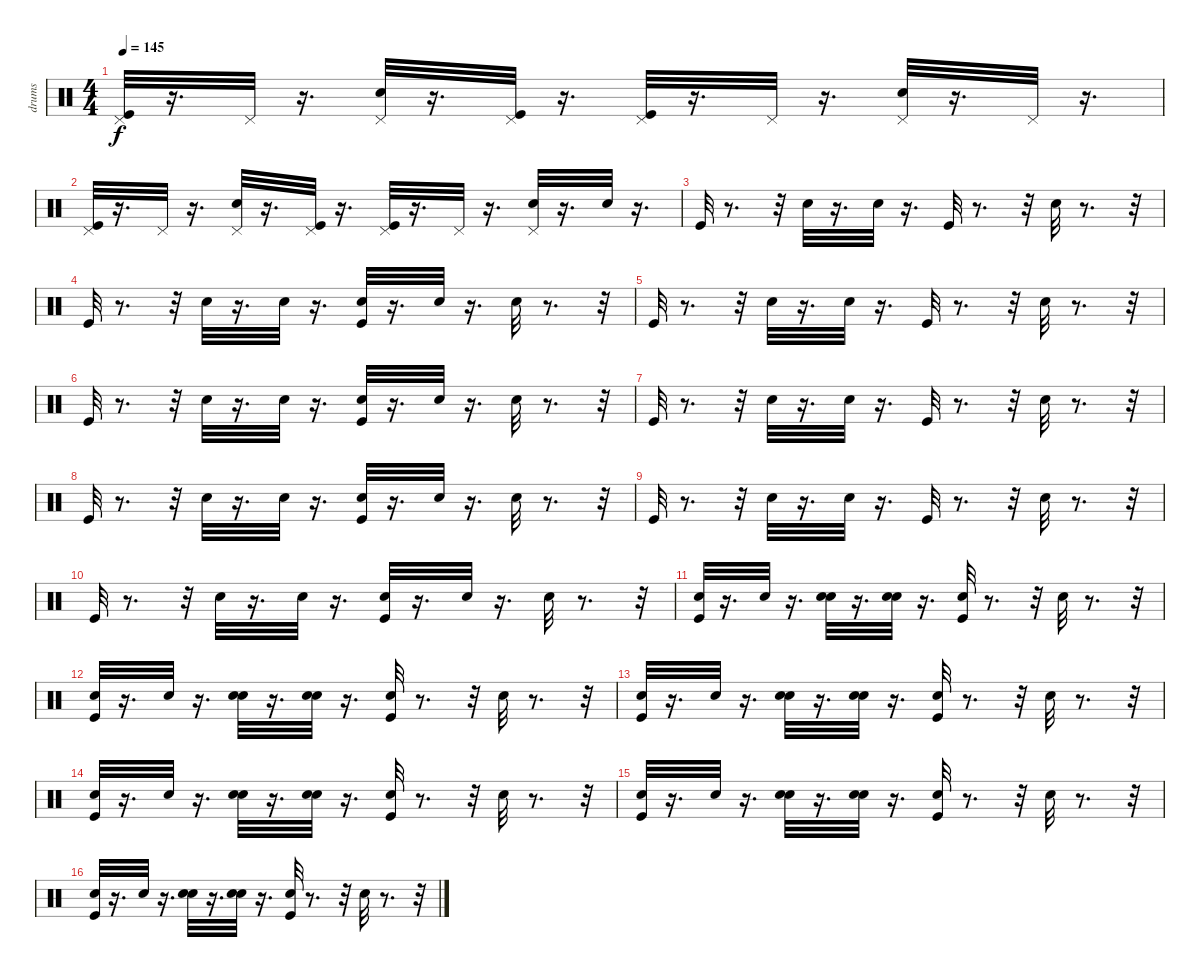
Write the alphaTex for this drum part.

\track ("drums" "drums") {instrument percussion}
\staff {score}
\articulation defaults
\ts (4 4)
\tempo 145
\clef neutral
\ks c
("Pedal Hi-Hat (hit)" "Kick (hit)").32{dy f} r.16{d} "Pedal Hi-Hat (hit)".32 r.16{d} ("Pedal Hi-Hat (hit)" "Electric Snare (hit)").32 r.16{d} ("Pedal Hi-Hat (hit)" "Kick (hit)").32 r.16{d} ("Pedal Hi-Hat (hit)" "Kick (hit)").32 r.16{d} "Pedal Hi-Hat (hit)".32 r.16{d} ("Pedal Hi-Hat (hit)" "Electric Snare (hit)").32 r.16{d} "Pedal Hi-Hat (hit)".32 r.16{d} |
("Pedal Hi-Hat (hit)" "Kick (hit)").32 r.16{d} "Pedal Hi-Hat (hit)".32 r.16{d} ("Pedal Hi-Hat (hit)" "Electric Snare (hit)").32 r.16{d} ("Pedal Hi-Hat (hit)" "Kick (hit)").32 r.16{d} ("Pedal Hi-Hat (hit)" "Kick (hit)").32 r.16{d} "Pedal Hi-Hat (hit)".32 r.16{d} ("Pedal Hi-Hat (hit)" "Electric Snare (hit)").32 r.16{d} "Electric Snare (hit)".32 r.16{d} |
"Kick (hit)".32 r.8{d} r.32 "Electric Snare (hit)".32 r.16{d} "Electric Snare (hit)".32 r.16{d} "Kick (hit)".32 r.8{d} r.32 "Electric Snare (hit)".32 r.8{d} r.32 |
"Kick (hit)".32 r.8{d} r.32 "Electric Snare (hit)".32 r.16{d} "Electric Snare (hit)".32 r.16{d} ("Kick (hit)" "Hand Clap (hit)").32 r.16{d} "Hand Clap (hit)".32 r.16{d} "Electric Snare (hit)".32 r.8{d} r.32 |
"Kick (hit)".32 r.8{d} r.32 "Electric Snare (hit)".32 r.16{d} "Electric Snare (hit)".32 r.16{d} "Kick (hit)".32 r.8{d} r.32 "Electric Snare (hit)".32 r.8{d} r.32 |
"Kick (hit)".32 r.8{d} r.32 "Electric Snare (hit)".32 r.16{d} "Electric Snare (hit)".32 r.16{d} ("Hand Clap (hit)" "Kick (hit)").32 r.16{d} "Hand Clap (hit)".32 r.16{d} "Electric Snare (hit)".32 r.8{d} r.32 |
"Kick (hit)".32 r.8{d} r.32 "Electric Snare (hit)".32 r.16{d} "Electric Snare (hit)".32 r.16{d} "Kick (hit)".32 r.8{d} r.32 "Electric Snare (hit)".32 r.8{d} r.32 |
"Kick (hit)".32 r.8{d} r.32 "Electric Snare (hit)".32 r.16{d} "Electric Snare (hit)".32 r.16{d} ("Kick (hit)" "Hand Clap (hit)").32 r.16{d} "Hand Clap (hit)".32 r.16{d} "Electric Snare (hit)".32 r.8{d} r.32 |
"Kick (hit)".32 r.8{d} r.32 "Electric Snare (hit)".32 r.16{d} "Electric Snare (hit)".32 r.16{d} "Kick (hit)".32 r.8{d} r.32 "Electric Snare (hit)".32 r.8{d} r.32 |
"Kick (hit)".32 r.8{d} r.32 "Electric Snare (hit)".32 r.16{d} "Electric Snare (hit)".32 r.16{d} ("Hand Clap (hit)" "Kick (hit)").32 r.16{d} "Hand Clap (hit)".32 r.16{d} "Electric Snare (hit)".32 r.8{d} r.32 |
("Hand Clap (hit)" "Kick (hit)").32 r.16{d} "Hand Clap (hit)".32 r.16{d} ("Hand Clap (hit)" "Electric Snare (hit)").32 r.16{d} ("Hand Clap (hit)" "Electric Snare (hit)").32 r.16{d} ("Hand Clap (hit)" "Kick (hit)").32 r.8{d} r.32 "Electric Snare (hit)".32 r.8{d} r.32 |
("Hand Clap (hit)" "Kick (hit)").32 r.16{d} "Hand Clap (hit)".32 r.16{d} ("Hand Clap (hit)" "Electric Snare (hit)").32 r.16{d} ("Hand Clap (hit)" "Electric Snare (hit)").32 r.16{d} ("Kick (hit)" "Hand Clap (hit)").32 r.8{d} r.32 "Electric Snare (hit)".32 r.8{d} r.32 |
("Hand Clap (hit)" "Kick (hit)").32 r.16{d} "Hand Clap (hit)".32 r.16{d} ("Hand Clap (hit)" "Electric Snare (hit)").32 r.16{d} ("Hand Clap (hit)" "Electric Snare (hit)").32 r.16{d} ("Hand Clap (hit)" "Kick (hit)").32 r.8{d} r.32 "Electric Snare (hit)".32 r.8{d} r.32 |
("Hand Clap (hit)" "Kick (hit)").32 r.16{d} "Hand Clap (hit)".32 r.16{d} ("Hand Clap (hit)" "Electric Snare (hit)").32 r.16{d} ("Hand Clap (hit)" "Electric Snare (hit)").32 r.16{d} ("Hand Clap (hit)" "Kick (hit)").32 r.8{d} r.32 "Electric Snare (hit)".32 r.8{d} r.32 |
("Hand Clap (hit)" "Kick (hit)").32 r.16{d} "Hand Clap (hit)".32 r.16{d} ("Hand Clap (hit)" "Electric Snare (hit)").32 r.16{d} ("Hand Clap (hit)" "Electric Snare (hit)").32 r.16{d} ("Hand Clap (hit)" "Kick (hit)").32 r.8{d} r.32 "Electric Snare (hit)".32 r.8{d} r.32 |
("Hand Clap (hit)" "Kick (hit)").32 r.16{d} "Hand Clap (hit)".32 r.16{d} ("Hand Clap (hit)" "Electric Snare (hit)").32 r.16{d} ("Hand Clap (hit)" "Electric Snare (hit)").32 r.16{d} ("Kick (hit)" "Hand Clap (hit)").32 r.8{d} r.32 "Electric Snare (hit)".32 r.8{d} r.32
